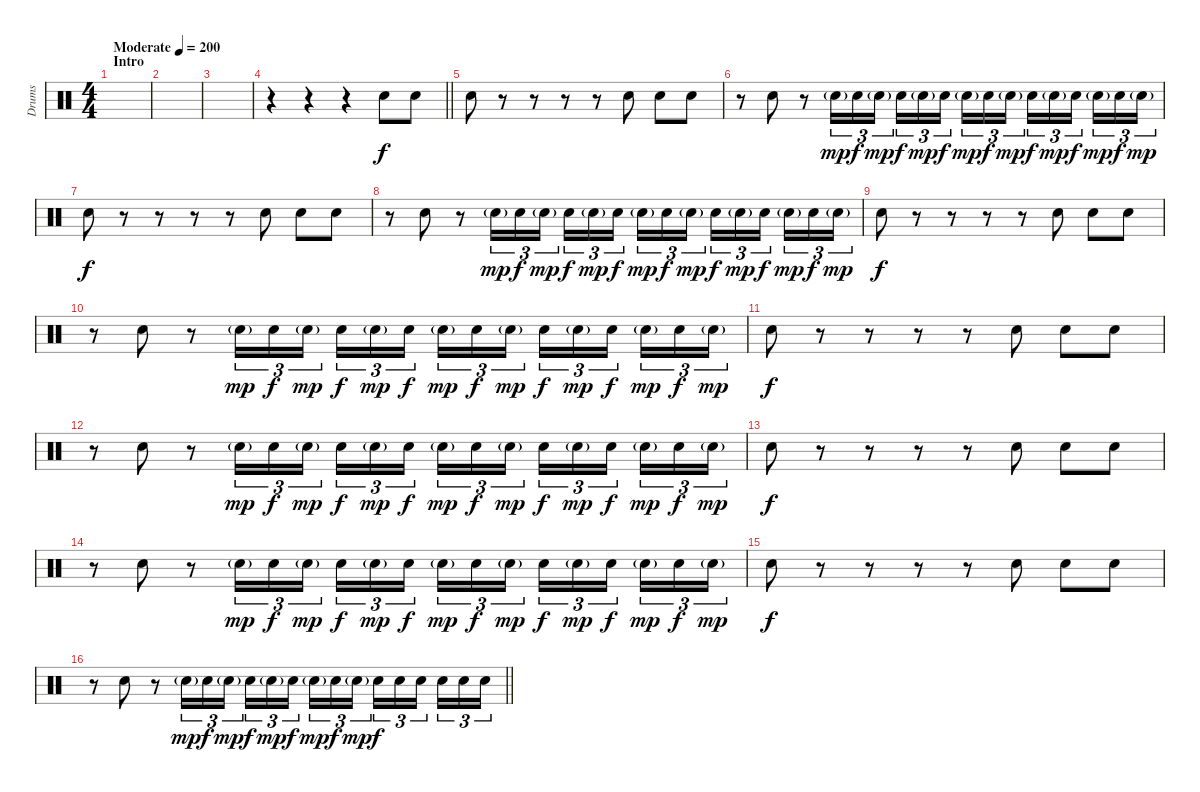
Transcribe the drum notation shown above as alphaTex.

\track ("Drums" "Drums") {instrument percussion}
\staff {score}
\articulation defaults
\ts (4 4)
\section ("" "Intro")
\tempo (200 "Moderate")
\clef neutral
\ks c
|
|
|
\barLineRight lightlight
r.4 r.4 r.4 "Electric Snare (hit)".8 "Electric Snare (hit)".8 |
"Electric Snare (hit)".8 r.8 r.8 r.8 r.8 "Electric Snare (hit)".8 "Electric Snare (hit)".8 "Electric Snare (hit)".8 |
r.8 "Electric Snare (hit)".8 r.8 "Electric Snare (hit)"{g}.16{tu (3 2) dy mp} "Electric Snare (hit)".16{tu (3 2) dy f} "Electric Snare (hit)"{g}.16{tu (3 2) dy mp} "Electric Snare (hit)".16{tu (3 2) dy f} "Electric Snare (hit)"{g}.16{tu (3 2) dy mp} "Electric Snare (hit)".16{tu (3 2) dy f beam splitsecondary} "Electric Snare (hit)"{g}.16{tu (3 2) dy mp} "Electric Snare (hit)".16{tu (3 2) dy f} "Electric Snare (hit)"{g}.16{tu (3 2) dy mp} "Electric Snare (hit)".16{tu (3 2) dy f} "Electric Snare (hit)"{g}.16{tu (3 2) dy mp} "Electric Snare (hit)".16{tu (3 2) dy f beam splitsecondary} "Electric Snare (hit)"{g}.16{tu (3 2) dy mp} "Electric Snare (hit)".16{tu (3 2) dy f} "Electric Snare (hit)"{g}.16{tu (3 2) dy mp} |
"Electric Snare (hit)".8{dy f} r.8 r.8 r.8 r.8 "Electric Snare (hit)".8 "Electric Snare (hit)".8 "Electric Snare (hit)".8 |
r.8 "Electric Snare (hit)".8 r.8 "Electric Snare (hit)"{g}.16{tu (3 2) dy mp} "Electric Snare (hit)".16{tu (3 2) dy f} "Electric Snare (hit)"{g}.16{tu (3 2) dy mp} "Electric Snare (hit)".16{tu (3 2) dy f} "Electric Snare (hit)"{g}.16{tu (3 2) dy mp} "Electric Snare (hit)".16{tu (3 2) dy f beam splitsecondary} "Electric Snare (hit)"{g}.16{tu (3 2) dy mp} "Electric Snare (hit)".16{tu (3 2) dy f} "Electric Snare (hit)"{g}.16{tu (3 2) dy mp} "Electric Snare (hit)".16{tu (3 2) dy f} "Electric Snare (hit)"{g}.16{tu (3 2) dy mp} "Electric Snare (hit)".16{tu (3 2) dy f beam splitsecondary} "Electric Snare (hit)"{g}.16{tu (3 2) dy mp} "Electric Snare (hit)".16{tu (3 2) dy f} "Electric Snare (hit)"{g}.16{tu (3 2) dy mp} |
"Electric Snare (hit)".8{dy f} r.8 r.8 r.8 r.8 "Electric Snare (hit)".8 "Electric Snare (hit)".8 "Electric Snare (hit)".8 |
r.8 "Electric Snare (hit)".8 r.8 "Electric Snare (hit)"{g}.16{tu (3 2) dy mp} "Electric Snare (hit)".16{tu (3 2) dy f} "Electric Snare (hit)"{g}.16{tu (3 2) dy mp} "Electric Snare (hit)".16{tu (3 2) dy f} "Electric Snare (hit)"{g}.16{tu (3 2) dy mp} "Electric Snare (hit)".16{tu (3 2) dy f beam splitsecondary} "Electric Snare (hit)"{g}.16{tu (3 2) dy mp} "Electric Snare (hit)".16{tu (3 2) dy f} "Electric Snare (hit)"{g}.16{tu (3 2) dy mp} "Electric Snare (hit)".16{tu (3 2) dy f} "Electric Snare (hit)"{g}.16{tu (3 2) dy mp} "Electric Snare (hit)".16{tu (3 2) dy f beam splitsecondary} "Electric Snare (hit)"{g}.16{tu (3 2) dy mp} "Electric Snare (hit)".16{tu (3 2) dy f} "Electric Snare (hit)"{g}.16{tu (3 2) dy mp} |
"Electric Snare (hit)".8{dy f} r.8 r.8 r.8 r.8 "Electric Snare (hit)".8 "Electric Snare (hit)".8 "Electric Snare (hit)".8 |
r.8 "Electric Snare (hit)".8 r.8 "Electric Snare (hit)"{g}.16{tu (3 2) dy mp} "Electric Snare (hit)".16{tu (3 2) dy f} "Electric Snare (hit)"{g}.16{tu (3 2) dy mp} "Electric Snare (hit)".16{tu (3 2) dy f} "Electric Snare (hit)"{g}.16{tu (3 2) dy mp} "Electric Snare (hit)".16{tu (3 2) dy f beam splitsecondary} "Electric Snare (hit)"{g}.16{tu (3 2) dy mp} "Electric Snare (hit)".16{tu (3 2) dy f} "Electric Snare (hit)"{g}.16{tu (3 2) dy mp} "Electric Snare (hit)".16{tu (3 2) dy f} "Electric Snare (hit)"{g}.16{tu (3 2) dy mp} "Electric Snare (hit)".16{tu (3 2) dy f beam splitsecondary} "Electric Snare (hit)"{g}.16{tu (3 2) dy mp} "Electric Snare (hit)".16{tu (3 2) dy f} "Electric Snare (hit)"{g}.16{tu (3 2) dy mp} |
"Electric Snare (hit)".8{dy f} r.8 r.8 r.8 r.8 "Electric Snare (hit)".8 "Electric Snare (hit)".8 "Electric Snare (hit)".8 |
r.8 "Electric Snare (hit)".8 r.8 "Electric Snare (hit)"{g}.16{tu (3 2) dy mp} "Electric Snare (hit)".16{tu (3 2) dy f} "Electric Snare (hit)"{g}.16{tu (3 2) dy mp} "Electric Snare (hit)".16{tu (3 2) dy f} "Electric Snare (hit)"{g}.16{tu (3 2) dy mp} "Electric Snare (hit)".16{tu (3 2) dy f beam splitsecondary} "Electric Snare (hit)"{g}.16{tu (3 2) dy mp} "Electric Snare (hit)".16{tu (3 2) dy f} "Electric Snare (hit)"{g}.16{tu (3 2) dy mp} "Electric Snare (hit)".16{tu (3 2) dy f} "Electric Snare (hit)"{g}.16{tu (3 2) dy mp} "Electric Snare (hit)".16{tu (3 2) dy f beam splitsecondary} "Electric Snare (hit)"{g}.16{tu (3 2) dy mp} "Electric Snare (hit)".16{tu (3 2) dy f} "Electric Snare (hit)"{g}.16{tu (3 2) dy mp} |
"Electric Snare (hit)".8{dy f} r.8 r.8 r.8 r.8 "Electric Snare (hit)".8 "Electric Snare (hit)".8 "Electric Snare (hit)".8 |
\barLineRight lightlight
r.8 "Electric Snare (hit)".8 r.8 "Electric Snare (hit)"{g}.16{tu (3 2) dy mp} "Electric Snare (hit)".16{tu (3 2) dy f} "Electric Snare (hit)"{g}.16{tu (3 2) dy mp} "Electric Snare (hit)".16{tu (3 2) dy f} "Electric Snare (hit)"{g}.16{tu (3 2) dy mp} "Electric Snare (hit)".16{tu (3 2) dy f beam splitsecondary} "Electric Snare (hit)"{g}.16{tu (3 2) dy mp} "Electric Snare (hit)".16{tu (3 2) dy f} "Electric Snare (hit)"{g}.16{tu (3 2) dy mp} "Electric Snare (hit)".16{tu (3 2) dy f} "Electric Snare (hit)".16{tu (3 2)} "Electric Snare (hit)".16{tu (3 2) beam splitsecondary} "Electric Snare (hit)".16{tu (3 2)} "Electric Snare (hit)".16{tu (3 2)} "Electric Snare (hit)".16{tu (3 2)}
